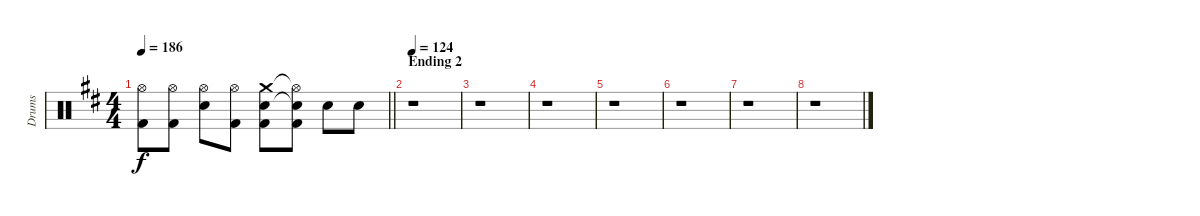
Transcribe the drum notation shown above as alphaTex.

\track ("Drums" "Drums") {instrument percussion}
\staff {score}
\articulation defaults
\ts (4 4)
\tempo 186
\clef neutral
\barLineRight lightlight
\ks d
("Hi-Hat (open)" "Kick (hit) 2").8{dy f} ("Hi-Hat (open)" "Kick (hit) 2").8 ("Hi-Hat (open)" "Electric Snare (hit)").8 ("Hi-Hat (open)" "Kick (hit) 2").8 ("Crash medium (hit)" "Electric Snare (hit)" "Kick (hit) 2").8 ("Hi-Hat (open)"{t} "Snare (hit)"{t} "Kick (hit) 2").8 "Electric Snare (hit)".8 "Electric Snare (hit)".8 |
\section ("" "Ending 2")
\tempo 124
r.1 |
r.1 |
r.1 |
r.1 |
r.1 |
r.1 |
r.1
